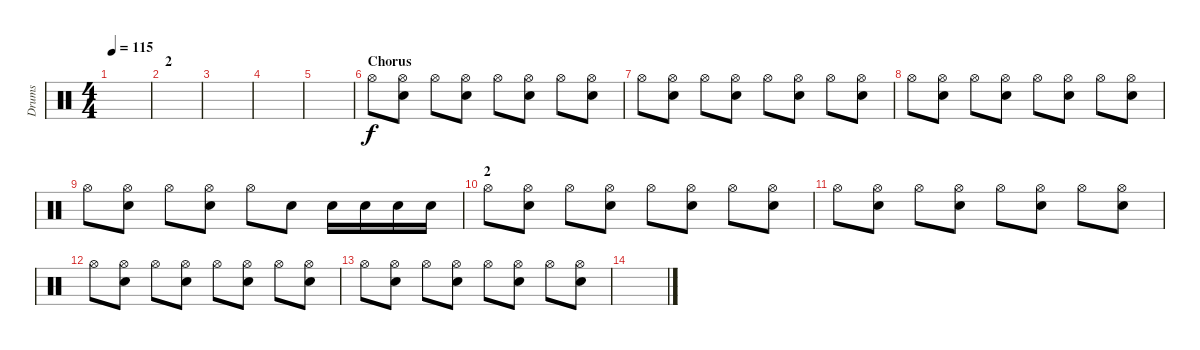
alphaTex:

\track ("Drums" "Drums") {instrument percussion}
\staff {score}
\articulation defaults
\ts (4 4)
\tempo 115
\clef neutral
\ks c
|
\section ("" "2")
|
|
|
|
\section ("" "Chorus")
"Hi-Hat (open)".8 ("Hi-Hat (open)" "Snare (hit) 2").8 "Hi-Hat (open)".8 ("Hi-Hat (open)" "Snare (hit) 2").8 "Hi-Hat (open)".8 ("Hi-Hat (open)" "Snare (hit) 2").8 "Hi-Hat (open)".8 ("Hi-Hat (open)" "Snare (hit) 2").8 |
"Hi-Hat (open)".8 ("Hi-Hat (open)" "Snare (hit) 2").8 "Hi-Hat (open)".8 ("Hi-Hat (open)" "Snare (hit) 2").8 "Hi-Hat (open)".8 ("Hi-Hat (open)" "Snare (hit) 2").8 "Hi-Hat (open)".8 ("Hi-Hat (open)" "Snare (hit) 2").8 |
"Hi-Hat (open)".8 ("Hi-Hat (open)" "Snare (hit) 2").8 "Hi-Hat (open)".8 ("Hi-Hat (open)" "Snare (hit) 2").8 "Hi-Hat (open)".8 ("Hi-Hat (open)" "Snare (hit) 2").8 "Hi-Hat (open)".8 ("Hi-Hat (open)" "Snare (hit) 2").8 |
"Hi-Hat (open)".8 ("Hi-Hat (open)" "Snare (hit) 2").8 "Hi-Hat (open)".8 ("Hi-Hat (open)" "Snare (hit) 2").8 "Hi-Hat (open)".8 "Snare (hit) 2".8 "Snare (hit) 2".16 "Snare (hit) 2".16 "Snare (hit) 2".16 "Snare (hit) 2".16 |
\section ("" "2")
"Hi-Hat (open)".8 ("Hi-Hat (open)" "Snare (hit) 2").8 "Hi-Hat (open)".8 ("Hi-Hat (open)" "Snare (hit) 2").8 "Hi-Hat (open)".8 ("Hi-Hat (open)" "Snare (hit) 2").8 "Hi-Hat (open)".8 ("Hi-Hat (open)" "Snare (hit) 2").8 |
"Hi-Hat (open)".8 ("Hi-Hat (open)" "Snare (hit) 2").8 "Hi-Hat (open)".8 ("Hi-Hat (open)" "Snare (hit) 2").8 "Hi-Hat (open)".8 ("Hi-Hat (open)" "Snare (hit) 2").8 "Hi-Hat (open)".8 ("Hi-Hat (open)" "Snare (hit) 2").8 |
"Hi-Hat (open)".8 ("Hi-Hat (open)" "Snare (hit) 2").8 "Hi-Hat (open)".8 ("Hi-Hat (open)" "Snare (hit) 2").8 "Hi-Hat (open)".8 ("Hi-Hat (open)" "Snare (hit) 2").8 "Hi-Hat (open)".8 ("Hi-Hat (open)" "Snare (hit) 2").8 |
"Hi-Hat (open)".8 ("Hi-Hat (open)" "Snare (hit) 2").8 "Hi-Hat (open)".8 ("Hi-Hat (open)" "Snare (hit) 2").8 "Hi-Hat (open)".8 ("Hi-Hat (open)" "Snare (hit) 2").8 "Hi-Hat (open)".8 ("Hi-Hat (open)" "Snare (hit) 2").8 |
\section ("" "")
